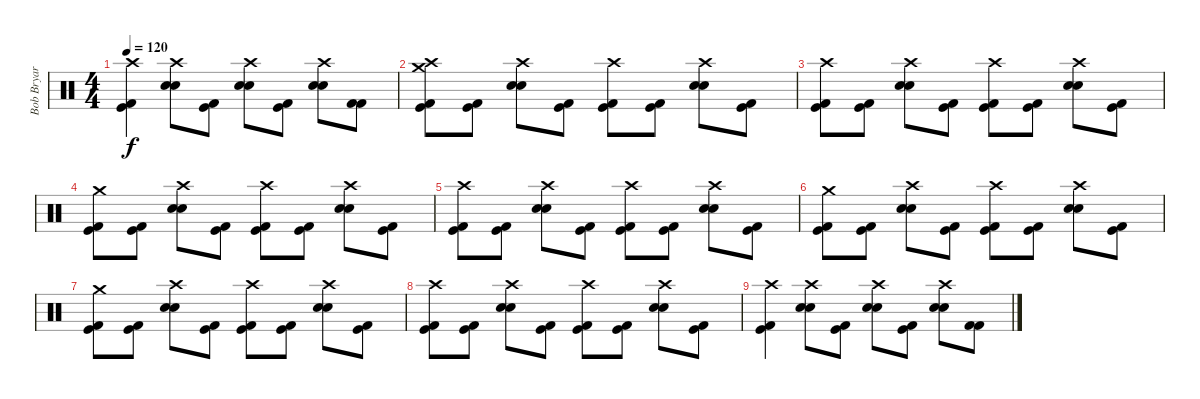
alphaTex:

\track ("Bob Bryar" "Bob Bryar") {instrument percussion}
\staff {score}
\articulation defaults
\ts (4 4)
\tempo 120
\clef neutral
\ks c
("Crash high (hit)" "Kick (hit)" "Kick (hit) 2").4{dy f} ("Crash high (hit)" "Electric Snare (hit)" "Snare (hit) 2").8 ("Kick (hit)" "Kick (hit) 2").8 ("Crash high (hit)" "Electric Snare (hit)" "Snare (hit) 2").8 ("Kick (hit)" "Kick (hit) 2").8 ("Crash high (hit)" "Electric Snare (hit)" "Snare (hit) 2").8 ("Kick (hit) 2" "Kick (hit) 2").8 |
("Crash medium (hit)" "Crash high (hit)" "Kick (hit)" "Kick (hit) 2").8{volume 0} ("Kick (hit)" "Kick (hit) 2").8 ("Crash high (hit)" "Electric Snare (hit)" "Snare (hit) 2").8 ("Kick (hit)" "Kick (hit) 2").8 ("Crash high (hit)" "Kick (hit)" "Kick (hit) 2").8 ("Kick (hit)" "Kick (hit) 2").8 ("Crash high (hit)" "Electric Snare (hit)" "Snare (hit) 2").8 ("Kick (hit)" "Kick (hit) 2").8 |
("Crash high (hit)" "Kick (hit)" "Kick (hit) 2").8 ("Kick (hit)" "Kick (hit) 2").8 ("Crash high (hit)" "Electric Snare (hit)" "Snare (hit) 2").8 ("Kick (hit)" "Kick (hit) 2").8 ("Crash high (hit)" "Kick (hit)" "Kick (hit) 2").8 ("Kick (hit)" "Kick (hit) 2").8 ("Crash high (hit)" "Electric Snare (hit)" "Snare (hit) 2").8 ("Kick (hit)" "Kick (hit) 2").8 |
("Crash medium (hit)" "Kick (hit)" "Kick (hit) 2").8 ("Kick (hit)" "Kick (hit) 2").8 ("Crash high (hit)" "Electric Snare (hit)" "Snare (hit) 2").8 ("Kick (hit)" "Kick (hit) 2").8 ("Crash high (hit)" "Kick (hit)" "Kick (hit) 2").8 ("Kick (hit)" "Kick (hit) 2").8 ("Crash high (hit)" "Electric Snare (hit)" "Snare (hit) 2").8 ("Kick (hit)" "Kick (hit) 2").8 |
("Crash high (hit)" "Kick (hit)" "Kick (hit) 2").8 ("Kick (hit)" "Kick (hit) 2").8 ("Crash high (hit)" "Electric Snare (hit)" "Snare (hit) 2").8 ("Kick (hit)" "Kick (hit) 2").8 ("Crash high (hit)" "Kick (hit)" "Kick (hit) 2").8 ("Kick (hit)" "Kick (hit) 2").8 ("Crash high (hit)" "Electric Snare (hit)" "Snare (hit) 2").8 ("Kick (hit)" "Kick (hit) 2").8 |
("Crash medium (hit)" "Kick (hit)" "Kick (hit) 2").8 ("Kick (hit)" "Kick (hit) 2").8 ("Crash high (hit)" "Electric Snare (hit)" "Snare (hit) 2").8 ("Kick (hit)" "Kick (hit) 2").8 ("Crash high (hit)" "Kick (hit)" "Kick (hit) 2").8 ("Kick (hit)" "Kick (hit) 2").8 ("Crash high (hit)" "Electric Snare (hit)" "Snare (hit) 2").8 ("Kick (hit)" "Kick (hit) 2").8 |
("Crash medium (hit)" "Kick (hit)" "Kick (hit) 2").8 ("Kick (hit)" "Kick (hit) 2").8 ("Crash high (hit)" "Electric Snare (hit)" "Snare (hit) 2").8 ("Kick (hit)" "Kick (hit) 2").8 ("Crash high (hit)" "Kick (hit)" "Kick (hit) 2").8 ("Kick (hit)" "Kick (hit) 2").8 ("Crash high (hit)" "Electric Snare (hit)" "Snare (hit) 2").8 ("Kick (hit)" "Kick (hit) 2").8 |
("Crash high (hit)" "Kick (hit)" "Kick (hit) 2").8 ("Kick (hit)" "Kick (hit) 2").8 ("Crash high (hit)" "Electric Snare (hit)" "Snare (hit) 2").8 ("Kick (hit)" "Kick (hit) 2").8 ("Crash high (hit)" "Kick (hit)" "Kick (hit) 2").8 ("Kick (hit)" "Kick (hit) 2").8 ("Crash high (hit)" "Electric Snare (hit)" "Snare (hit) 2").8 ("Kick (hit)" "Kick (hit) 2").8 |
("Crash high (hit)" "Kick (hit)" "Kick (hit) 2").4 ("Crash high (hit)" "Electric Snare (hit)" "Snare (hit) 2").8 ("Kick (hit)" "Kick (hit) 2").8 ("Crash high (hit)" "Electric Snare (hit)" "Snare (hit) 2").8 ("Kick (hit)" "Kick (hit) 2").8 ("Crash high (hit)" "Electric Snare (hit)" "Snare (hit) 2").8 ("Kick (hit) 2" "Kick (hit) 2").8
